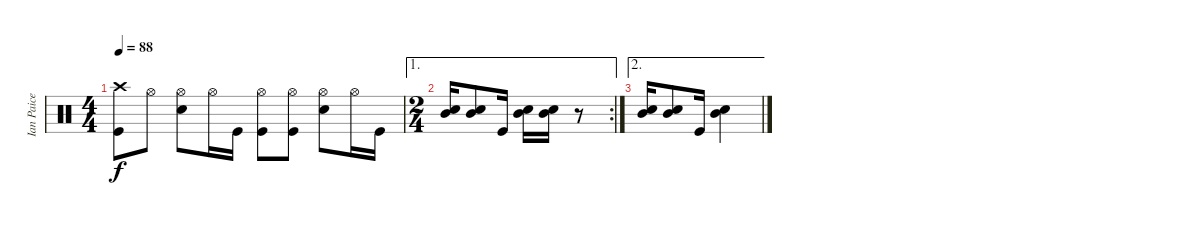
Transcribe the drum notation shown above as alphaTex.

\track ("Ian Paice" "Ian Paice") {instrument percussion}
\staff {score}
\articulation defaults
\ts (4 4)
\tempo 88
\clef neutral
\ks c
("Crash high (hit)" "Kick (hit)").8{dy f} "Hi-Hat (open)".8 ("Hi-Hat (open)" "Snare (hit) 2").8 "Hi-Hat (open)".16 "Kick (hit)".16 ("Hi-Hat (open)" "Kick (hit)").8 ("Hi-Hat (open)" "Kick (hit)").8 ("Hi-Hat (open)" "Snare (hit) 2").8 "Hi-Hat (open)".16 "Kick (hit)".16 |
\ae 1
\rc 2
\ts (2 4)
("Snare (hit) 2" "Mid Tom (hit)").16 ("Snare (hit) 2" "Mid Tom (hit)").8 "Kick (hit)".16 ("Snare (hit) 2" "Mid Tom (hit)").16 ("Snare (hit) 2" "Mid Tom (hit)").16 r.8 |
\ae 2
("Mid Tom (hit)" "Snare (hit) 2").16 ("Mid Tom (hit)" "Snare (hit) 2").8 "Kick (hit)".16 ("Mid Tom (hit)" "Snare (hit) 2").4
